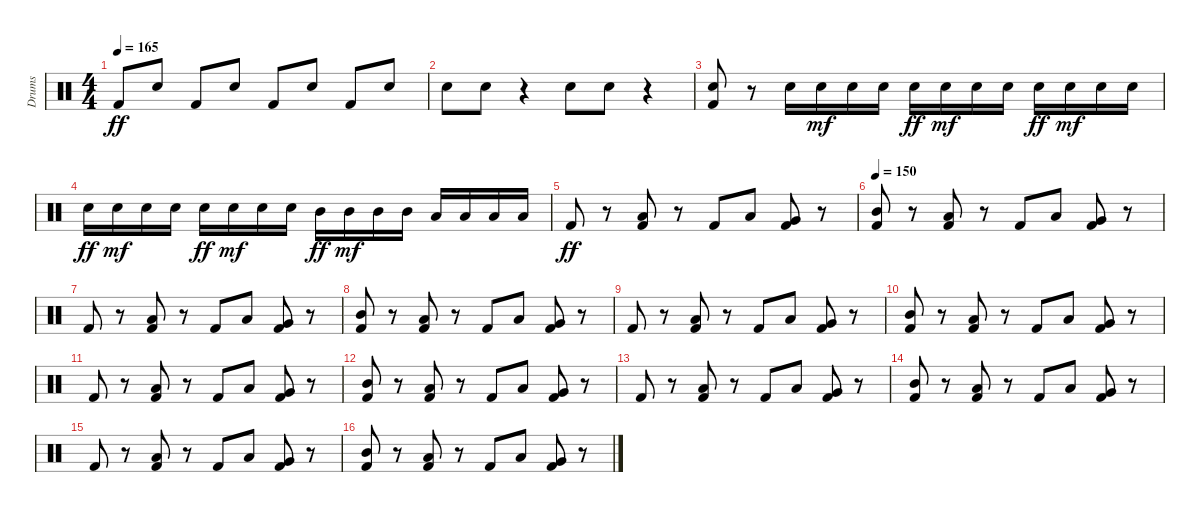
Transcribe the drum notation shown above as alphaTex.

\track ("Drums" "Drums") {instrument percussion}
\staff {score}
\articulation defaults
\ts (4 4)
\tempo 165
\clef neutral
\ks c "Kick (hit) 2".8{dy ff} "Snare (hit) 2".8 "Kick (hit) 2".8 "Snare (hit) 2".8 "Kick (hit) 2".8 "Snare (hit) 2".8 "Kick (hit) 2".8 "Snare (hit) 2".8
|
"Snare (hit) 2".8 "Snare (hit) 2".8 r.4 "Snare (hit) 2".8 "Snare (hit) 2".8 r.4 |
("Snare (hit) 2" "Kick (hit) 2").8 r.8 "Snare (hit) 2".16 "Snare (hit) 2".16{dy mf} "Snare (hit) 2".16 "Snare (hit) 2".16 "Snare (hit) 2".16{dy ff} "Snare (hit) 2".16{dy mf} "Snare (hit) 2".16 "Snare (hit) 2".16 "Snare (hit) 2".16{dy ff} "Snare (hit) 2".16{dy mf} "Snare (hit) 2".16 "Snare (hit) 2".16 |
"Snare (hit) 2".16{dy ff} "Snare (hit) 2".16{dy mf} "Snare (hit) 2".16 "Snare (hit) 2".16 "Snare (hit) 2".16{dy ff} "Snare (hit) 2".16{dy mf} "Snare (hit) 2".16 "Snare (hit) 2".16 "Mid Tom (hit)".16{dy ff} "Mid Tom (hit)".16{dy mf} "Mid Tom (hit)".16 "Mid Tom (hit)".16 "Low Tom (hit)".16 "Low Tom (hit)".16 "Low Tom (hit)".16 "Low Tom (hit)".16 |
"Kick (hit) 2".8{dy ff} r.8 ("Kick (hit) 2" "Low Tom (hit)").8 r.8 "Kick (hit) 2".8 "Low Tom (hit)".8 ("Kick (hit) 2" "Very Low Tom (hit)").8 r.8 |
\tempo 150
("Mid Tom (hit)" "Kick (hit) 2").8 r.8 ("Kick (hit) 2" "Low Tom (hit)").8 r.8 "Kick (hit) 2".8 "Low Tom (hit)".8 ("Kick (hit) 2" "Very Low Tom (hit)").8 r.8 |
"Kick (hit) 2".8 r.8 ("Low Tom (hit)" "Kick (hit) 2").8 r.8 "Kick (hit) 2".8 "Low Tom (hit)".8 ("Very Low Tom (hit)" "Kick (hit) 2").8 r.8 |
("Mid Tom (hit)" "Kick (hit) 2").8 r.8 ("Low Tom (hit)" "Kick (hit) 2").8 r.8 "Kick (hit) 2".8 "Low Tom (hit)".8 ("Very Low Tom (hit)" "Kick (hit) 2").8 r.8 |
"Kick (hit) 2".8 r.8 ("Low Tom (hit)" "Kick (hit) 2").8 r.8 "Kick (hit) 2".8 "Low Tom (hit)".8 ("Very Low Tom (hit)" "Kick (hit) 2").8 r.8 |
("Kick (hit) 2" "Mid Tom (hit)").8 r.8 ("Low Tom (hit)" "Kick (hit) 2").8 r.8 "Kick (hit) 2".8 "Low Tom (hit)".8 ("Very Low Tom (hit)" "Kick (hit) 2").8 r.8 |
"Kick (hit) 2".8 r.8 ("Kick (hit) 2" "Low Tom (hit)").8 r.8 "Kick (hit) 2".8 "Low Tom (hit)".8 ("Kick (hit) 2" "Very Low Tom (hit)").8 r.8 |
("Kick (hit) 2" "Mid Tom (hit)").8 r.8 ("Kick (hit) 2" "Low Tom (hit)").8 r.8 "Kick (hit) 2".8 "Low Tom (hit)".8 ("Kick (hit) 2" "Very Low Tom (hit)").8 r.8 |
"Kick (hit) 2".8 r.8 ("Low Tom (hit)" "Kick (hit) 2").8 r.8 "Kick (hit) 2".8 "Low Tom (hit)".8 ("Very Low Tom (hit)" "Kick (hit) 2").8 r.8 |
("Kick (hit) 2" "Mid Tom (hit)").8 r.8 ("Low Tom (hit)" "Kick (hit) 2").8 r.8 "Kick (hit) 2".8 "Low Tom (hit)".8 ("Very Low Tom (hit)" "Kick (hit) 2").8 r.8 |
"Kick (hit) 2".8 r.8 ("Kick (hit) 2" "Low Tom (hit)").8 r.8 "Kick (hit) 2".8 "Low Tom (hit)".8 ("Kick (hit) 2" "Very Low Tom (hit)").8 r.8 |
("Kick (hit) 2" "Mid Tom (hit)").8 r.8 ("Kick (hit) 2" "Low Tom (hit)").8 r.8 "Kick (hit) 2".8 "Low Tom (hit)".8 ("Kick (hit) 2" "Very Low Tom (hit)").8 r.8
